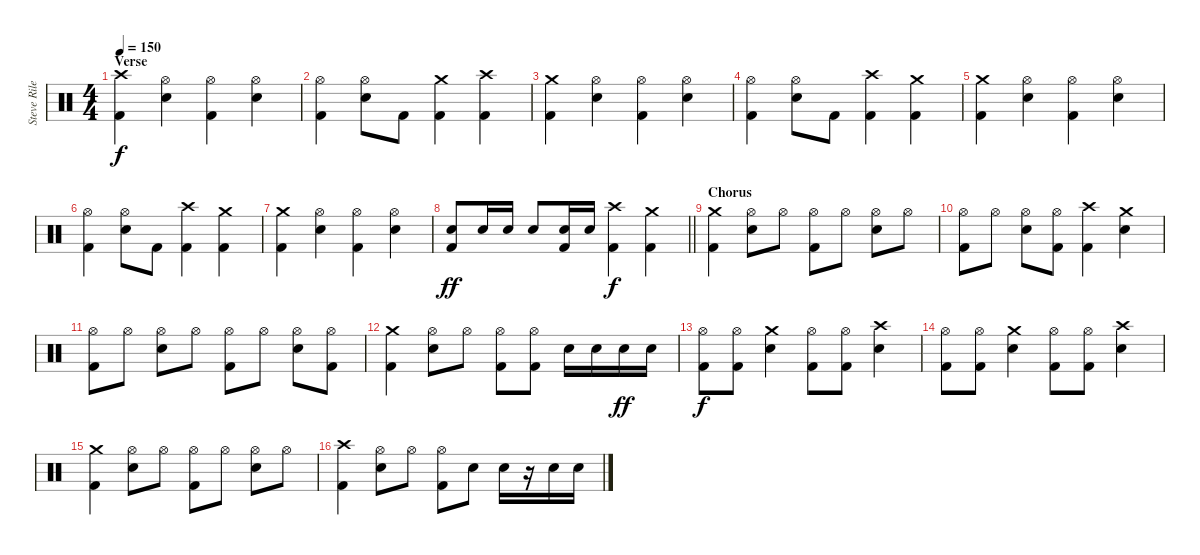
\track ("Steve Riley" "Steve Rile") {instrument percussion}
\staff {score}
\articulation defaults
\ts (4 4)
\section ("" "Verse")
\tempo 150
\clef neutral
\ks c
("Crash high (hit)" "Kick (hit) 2").4{dy f} ("Hi-Hat (open)" "Snare (hit) 2").4 ("Hi-Hat (open)" "Kick (hit) 2").4 ("Hi-Hat (open)" "Snare (hit) 2").4 |
("Hi-Hat (open)" "Kick (hit) 2").4 ("Hi-Hat (open)" "Snare (hit) 2").8 "Kick (hit) 2".8 ("Crash medium (hit)" "Kick (hit) 2").4 ("Crash high (hit)" "Kick (hit) 2").4 |
("Crash medium (hit)" "Kick (hit) 2").4 ("Hi-Hat (open)" "Snare (hit) 2").4 ("Hi-Hat (open)" "Kick (hit) 2").4 ("Hi-Hat (open)" "Snare (hit) 2").4 |
("Hi-Hat (open)" "Kick (hit) 2").4 ("Hi-Hat (open)" "Snare (hit) 2").8 "Kick (hit) 2".8 ("Crash high (hit)" "Kick (hit) 2").4 ("Crash medium (hit)" "Kick (hit) 2").4 |
("Crash medium (hit)" "Kick (hit) 2").4 ("Hi-Hat (open)" "Snare (hit) 2").4 ("Hi-Hat (open)" "Kick (hit) 2").4 ("Hi-Hat (open)" "Snare (hit) 2").4 |
("Hi-Hat (open)" "Kick (hit) 2").4 ("Hi-Hat (open)" "Snare (hit) 2").8 "Kick (hit) 2".8 ("Crash high (hit)" "Kick (hit) 2").4 ("Crash medium (hit)" "Kick (hit) 2").4 |
("Crash medium (hit)" "Kick (hit) 2").4 ("Hi-Hat (open)" "Snare (hit) 2").4 ("Hi-Hat (open)" "Kick (hit) 2").4 ("Hi-Hat (open)" "Snare (hit) 2").4 |
\barLineRight lightlight
("Snare (hit) 2" "Kick (hit) 2").8{dy ff} "Snare (hit) 2".16 "Snare (hit) 2".16 "Snare (hit) 2".8 ("Snare (hit) 2" "Kick (hit) 2").16 "Snare (hit) 2".16 ("Crash high (hit)" "Kick (hit) 2").4{dy f} ("Crash medium (hit)" "Kick (hit) 2").4 |
\section ("" "Chorus")
("Crash medium (hit)" "Kick (hit) 2").4 ("Hi-Hat (open)" "Snare (hit) 2").8 "Hi-Hat (open)".8 ("Hi-Hat (open)" "Kick (hit) 2").8 "Hi-Hat (open)".8 ("Hi-Hat (open)" "Snare (hit) 2").8 "Hi-Hat (open)".8 |
("Hi-Hat (open)" "Kick (hit) 2").8 "Hi-Hat (open)".8 ("Hi-Hat (open)" "Snare (hit) 2").8 ("Hi-Hat (open)" "Kick (hit) 2").8 ("Crash high (hit)" "Kick (hit) 2").4 ("Crash medium (hit)" "Snare (hit) 2").4 |
("Hi-Hat (open)" "Kick (hit) 2").8 "Hi-Hat (open)".8 ("Hi-Hat (open)" "Snare (hit) 2").8 "Hi-Hat (open)".8 ("Hi-Hat (open)" "Kick (hit) 2").8 "Hi-Hat (open)".8 ("Hi-Hat (open)" "Snare (hit) 2").8 ("Hi-Hat (open)" "Kick (hit) 2").8 |
("Crash medium (hit)" "Kick (hit) 2").4 ("Hi-Hat (open)" "Snare (hit) 2").8 "Hi-Hat (open)".8 ("Hi-Hat (open)" "Kick (hit) 2").8 ("Hi-Hat (open)" "Kick (hit) 2").8 "Snare (hit) 2".16 "Snare (hit) 2".16 "Snare (hit) 2".16{dy ff} "Snare (hit) 2".16 |
("Hi-Hat (open)" "Kick (hit) 2").8{dy f} ("Hi-Hat (open)" "Kick (hit) 2").8 ("Crash medium (hit)" "Snare (hit) 2").4 ("Hi-Hat (open)" "Kick (hit) 2").8 ("Hi-Hat (open)" "Kick (hit) 2").8 ("Crash high (hit)" "Snare (hit) 2").4 |
("Hi-Hat (open)" "Kick (hit) 2").8 ("Hi-Hat (open)" "Kick (hit) 2").8 ("Crash medium (hit)" "Snare (hit) 2").4 ("Hi-Hat (open)" "Kick (hit) 2").8 ("Hi-Hat (open)" "Kick (hit) 2").8 ("Crash high (hit)" "Snare (hit) 2").4 |
("Crash medium (hit)" "Kick (hit) 2").4 ("Hi-Hat (open)" "Snare (hit) 2").8 "Hi-Hat (open)".8 ("Hi-Hat (open)" "Kick (hit) 2").8 "Hi-Hat (open)".8 ("Hi-Hat (open)" "Snare (hit) 2").8 "Hi-Hat (open)".8 |
("Crash high (hit)" "Kick (hit) 2").4 ("Hi-Hat (open)" "Snare (hit) 2").8 "Hi-Hat (open)".8 ("Hi-Hat (open)" "Kick (hit) 2").8 "Snare (hit) 2".8 "Snare (hit) 2".16 r.16 "Snare (hit) 2".16 "Snare (hit) 2".16
